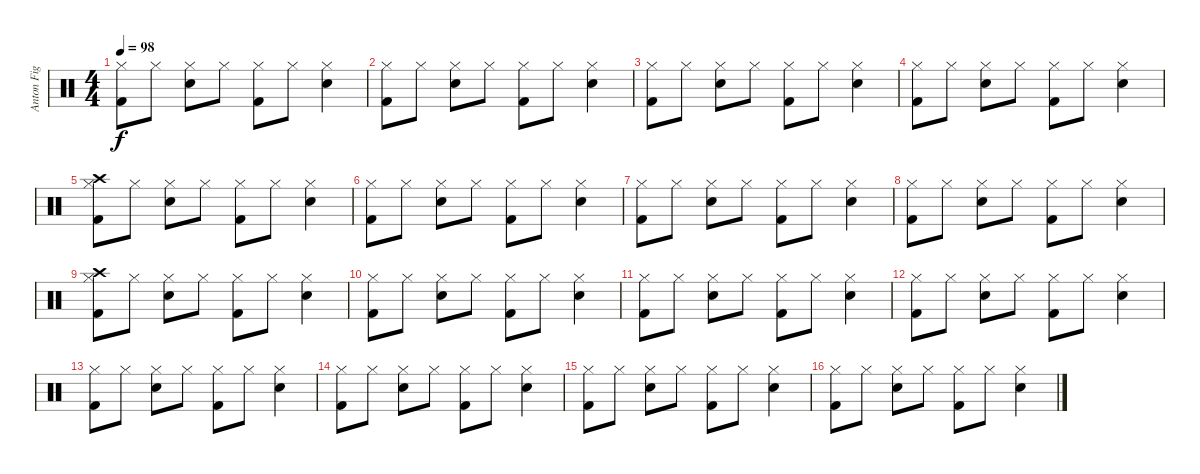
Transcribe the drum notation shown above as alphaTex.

\track ("Anton Fig" "Anton Fig") {instrument percussion}
\staff {score}
\articulation defaults
\ts (4 4)
\tempo 98
\clef neutral
\ks c
("Hi-Hat (closed)" "Kick (hit) 2").8{dy f} "Hi-Hat (closed)".8 ("Hi-Hat (closed)" "Snare (hit) 2").8 "Hi-Hat (closed)".8 ("Hi-Hat (closed)" "Kick (hit) 2").8 "Hi-Hat (closed)".8 ("Hi-Hat (closed)" "Snare (hit) 2").4 |
("Hi-Hat (closed)" "Kick (hit) 2").8 "Hi-Hat (closed)".8 ("Hi-Hat (closed)" "Snare (hit) 2").8 "Hi-Hat (closed)".8 ("Hi-Hat (closed)" "Kick (hit) 2").8 "Hi-Hat (closed)".8 ("Hi-Hat (closed)" "Snare (hit) 2").4 |
("Hi-Hat (closed)" "Kick (hit) 2").8 "Hi-Hat (closed)".8 ("Hi-Hat (closed)" "Snare (hit) 2").8 "Hi-Hat (closed)".8 ("Hi-Hat (closed)" "Kick (hit) 2").8 "Hi-Hat (closed)".8 ("Hi-Hat (closed)" "Snare (hit) 2").4 |
("Hi-Hat (closed)" "Kick (hit) 2").8 "Hi-Hat (closed)".8 ("Hi-Hat (closed)" "Snare (hit) 2").8 "Hi-Hat (closed)".8 ("Hi-Hat (closed)" "Kick (hit) 2").8 "Hi-Hat (closed)".8 ("Hi-Hat (closed)" "Snare (hit) 2").4 |
("Hi-Hat (closed)" "Crash high (hit)" "Kick (hit) 2").8 "Hi-Hat (closed)".8 ("Hi-Hat (closed)" "Snare (hit) 2").8 "Hi-Hat (closed)".8 ("Hi-Hat (closed)" "Kick (hit) 2").8 "Hi-Hat (closed)".8 ("Hi-Hat (closed)" "Snare (hit) 2").4 |
("Hi-Hat (closed)" "Kick (hit) 2").8 "Hi-Hat (closed)".8 ("Hi-Hat (closed)" "Snare (hit) 2").8 "Hi-Hat (closed)".8 ("Hi-Hat (closed)" "Kick (hit) 2").8 "Hi-Hat (closed)".8 ("Hi-Hat (closed)" "Snare (hit) 2").4 |
("Hi-Hat (closed)" "Kick (hit) 2").8 "Hi-Hat (closed)".8 ("Hi-Hat (closed)" "Snare (hit) 2").8 "Hi-Hat (closed)".8 ("Hi-Hat (closed)" "Kick (hit) 2").8 "Hi-Hat (closed)".8 ("Hi-Hat (closed)" "Snare (hit) 2").4 |
("Hi-Hat (closed)" "Kick (hit) 2").8 "Hi-Hat (closed)".8 ("Hi-Hat (closed)" "Snare (hit) 2").8 "Hi-Hat (closed)".8 ("Hi-Hat (closed)" "Kick (hit) 2").8 "Hi-Hat (closed)".8 ("Hi-Hat (closed)" "Snare (hit) 2").4 |
("Hi-Hat (closed)" "Crash high (hit)" "Kick (hit) 2").8 "Hi-Hat (closed)".8 ("Hi-Hat (closed)" "Snare (hit) 2").8 "Hi-Hat (closed)".8 ("Hi-Hat (closed)" "Kick (hit) 2").8 "Hi-Hat (closed)".8 ("Hi-Hat (closed)" "Snare (hit) 2").4 |
("Hi-Hat (closed)" "Kick (hit) 2").8 "Hi-Hat (closed)".8 ("Hi-Hat (closed)" "Snare (hit) 2").8 "Hi-Hat (closed)".8 ("Hi-Hat (closed)" "Kick (hit) 2").8 "Hi-Hat (closed)".8 ("Hi-Hat (closed)" "Snare (hit) 2").4 |
("Hi-Hat (closed)" "Kick (hit) 2").8 "Hi-Hat (closed)".8 ("Hi-Hat (closed)" "Snare (hit) 2").8 "Hi-Hat (closed)".8 ("Hi-Hat (closed)" "Kick (hit) 2").8 "Hi-Hat (closed)".8 ("Hi-Hat (closed)" "Snare (hit) 2").4 |
("Hi-Hat (closed)" "Kick (hit) 2").8 "Hi-Hat (closed)".8 ("Hi-Hat (closed)" "Snare (hit) 2").8 "Hi-Hat (closed)".8 ("Hi-Hat (closed)" "Kick (hit) 2").8 "Hi-Hat (closed)".8 ("Hi-Hat (closed)" "Snare (hit) 2").4 |
("Hi-Hat (closed)" "Kick (hit) 2").8 "Hi-Hat (closed)".8 ("Hi-Hat (closed)" "Snare (hit) 2").8 "Hi-Hat (closed)".8 ("Hi-Hat (closed)" "Kick (hit) 2").8 "Hi-Hat (closed)".8 ("Hi-Hat (closed)" "Snare (hit) 2").4 |
("Hi-Hat (closed)" "Kick (hit) 2").8 "Hi-Hat (closed)".8 ("Hi-Hat (closed)" "Snare (hit) 2").8 "Hi-Hat (closed)".8 ("Hi-Hat (closed)" "Kick (hit) 2").8 "Hi-Hat (closed)".8 ("Hi-Hat (closed)" "Snare (hit) 2").4 |
("Hi-Hat (closed)" "Kick (hit) 2").8 "Hi-Hat (closed)".8 ("Hi-Hat (closed)" "Snare (hit) 2").8 "Hi-Hat (closed)".8 ("Hi-Hat (closed)" "Kick (hit) 2").8 "Hi-Hat (closed)".8 ("Hi-Hat (closed)" "Snare (hit) 2").4 |
("Hi-Hat (closed)" "Kick (hit) 2").8 "Hi-Hat (closed)".8 ("Hi-Hat (closed)" "Snare (hit) 2").8 "Hi-Hat (closed)".8 ("Hi-Hat (closed)" "Kick (hit) 2").8 "Hi-Hat (closed)".8 ("Hi-Hat (closed)" "Snare (hit) 2").4
